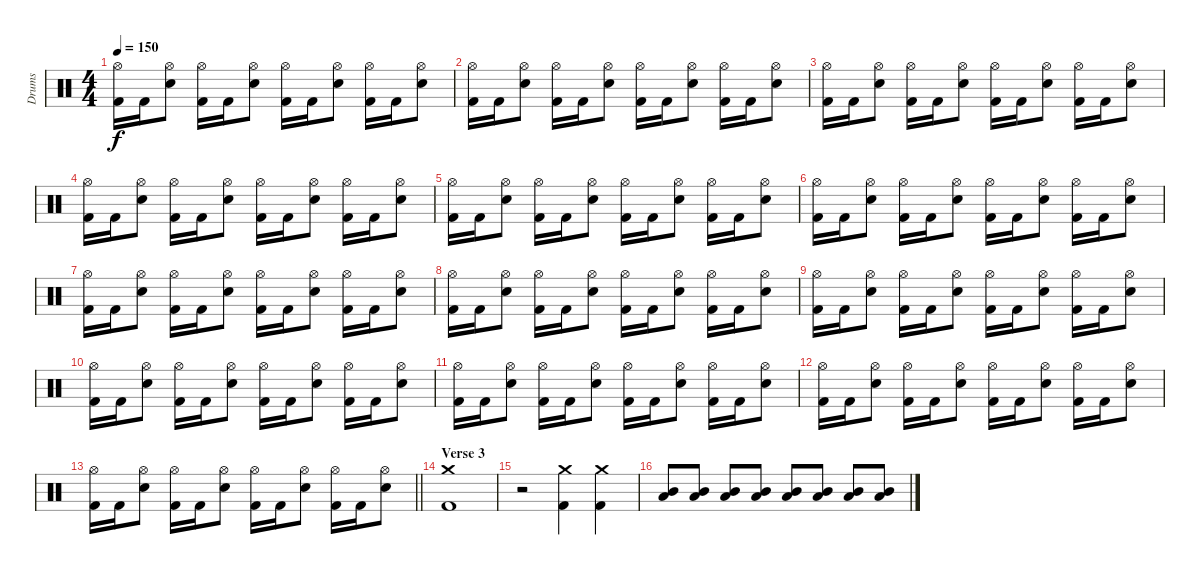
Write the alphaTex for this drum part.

\track ("Drums" "Drums") {instrument percussion}
\staff {score}
\articulation defaults
\ts (4 4)
\tempo 150
\clef neutral
\ks c
("Hi-Hat (open)" "Kick (hit) 2").16{dy f} "Kick (hit) 2".16 ("Hi-Hat (open)" "Electric Snare (hit)").8 ("Hi-Hat (open)" "Kick (hit) 2").16 "Kick (hit) 2".16 ("Electric Snare (hit)" "Hi-Hat (open)").8 ("Kick (hit) 2" "Hi-Hat (open)").16 "Kick (hit) 2".16 ("Hi-Hat (open)" "Electric Snare (hit)").8 ("Hi-Hat (open)" "Kick (hit) 2").16 "Kick (hit) 2".16 ("Hi-Hat (open)" "Electric Snare (hit)").8 |
("Hi-Hat (open)" "Kick (hit) 2").16 "Kick (hit) 2".16 ("Hi-Hat (open)" "Electric Snare (hit)").8 ("Hi-Hat (open)" "Kick (hit) 2").16 "Kick (hit) 2".16 ("Electric Snare (hit)" "Hi-Hat (open)").8 ("Kick (hit) 2" "Hi-Hat (open)").16 "Kick (hit) 2".16 ("Hi-Hat (open)" "Electric Snare (hit)").8 ("Hi-Hat (open)" "Kick (hit) 2").16 "Kick (hit) 2".16 ("Hi-Hat (open)" "Electric Snare (hit)").8 |
("Hi-Hat (open)" "Kick (hit) 2").16 "Kick (hit) 2".16 ("Hi-Hat (open)" "Electric Snare (hit)").8 ("Hi-Hat (open)" "Kick (hit) 2").16 "Kick (hit) 2".16 ("Electric Snare (hit)" "Hi-Hat (open)").8 ("Kick (hit) 2" "Hi-Hat (open)").16 "Kick (hit) 2".16 ("Hi-Hat (open)" "Electric Snare (hit)").8 ("Hi-Hat (open)" "Kick (hit) 2").16 "Kick (hit) 2".16 ("Hi-Hat (open)" "Electric Snare (hit)").8 |
("Hi-Hat (open)" "Kick (hit) 2").16 "Kick (hit) 2".16 ("Hi-Hat (open)" "Electric Snare (hit)").8 ("Hi-Hat (open)" "Kick (hit) 2").16 "Kick (hit) 2".16 ("Electric Snare (hit)" "Hi-Hat (open)").8 ("Kick (hit) 2" "Hi-Hat (open)").16 "Kick (hit) 2".16 ("Hi-Hat (open)" "Electric Snare (hit)").8 ("Hi-Hat (open)" "Kick (hit) 2").16 "Kick (hit) 2".16 ("Hi-Hat (open)" "Electric Snare (hit)").8 |
("Hi-Hat (open)" "Kick (hit) 2").16 "Kick (hit) 2".16 ("Hi-Hat (open)" "Electric Snare (hit)").8 ("Hi-Hat (open)" "Kick (hit) 2").16 "Kick (hit) 2".16 ("Electric Snare (hit)" "Hi-Hat (open)").8 ("Kick (hit) 2" "Hi-Hat (open)").16 "Kick (hit) 2".16 ("Hi-Hat (open)" "Electric Snare (hit)").8 ("Hi-Hat (open)" "Kick (hit) 2").16 "Kick (hit) 2".16 ("Hi-Hat (open)" "Electric Snare (hit)").8 |
("Hi-Hat (open)" "Kick (hit) 2").16 "Kick (hit) 2".16 ("Hi-Hat (open)" "Electric Snare (hit)").8 ("Hi-Hat (open)" "Kick (hit) 2").16 "Kick (hit) 2".16 ("Electric Snare (hit)" "Hi-Hat (open)").8 ("Kick (hit) 2" "Hi-Hat (open)").16 "Kick (hit) 2".16 ("Hi-Hat (open)" "Electric Snare (hit)").8 ("Hi-Hat (open)" "Kick (hit) 2").16 "Kick (hit) 2".16 ("Hi-Hat (open)" "Electric Snare (hit)").8 |
("Hi-Hat (open)" "Kick (hit) 2").16 "Kick (hit) 2".16 ("Hi-Hat (open)" "Electric Snare (hit)").8 ("Hi-Hat (open)" "Kick (hit) 2").16 "Kick (hit) 2".16 ("Electric Snare (hit)" "Hi-Hat (open)").8 ("Kick (hit) 2" "Hi-Hat (open)").16 "Kick (hit) 2".16 ("Hi-Hat (open)" "Electric Snare (hit)").8 ("Hi-Hat (open)" "Kick (hit) 2").16 "Kick (hit) 2".16 ("Hi-Hat (open)" "Electric Snare (hit)").8 |
("Hi-Hat (open)" "Kick (hit) 2").16 "Kick (hit) 2".16 ("Hi-Hat (open)" "Electric Snare (hit)").8 ("Hi-Hat (open)" "Kick (hit) 2").16 "Kick (hit) 2".16 ("Electric Snare (hit)" "Hi-Hat (open)").8 ("Kick (hit) 2" "Hi-Hat (open)").16 "Kick (hit) 2".16 ("Hi-Hat (open)" "Electric Snare (hit)").8 ("Hi-Hat (open)" "Kick (hit) 2").16 "Kick (hit) 2".16 ("Hi-Hat (open)" "Electric Snare (hit)").8 |
("Hi-Hat (open)" "Kick (hit) 2").16 "Kick (hit) 2".16 ("Hi-Hat (open)" "Electric Snare (hit)").8 ("Hi-Hat (open)" "Kick (hit) 2").16 "Kick (hit) 2".16 ("Electric Snare (hit)" "Hi-Hat (open)").8 ("Kick (hit) 2" "Hi-Hat (open)").16 "Kick (hit) 2".16 ("Hi-Hat (open)" "Electric Snare (hit)").8 ("Hi-Hat (open)" "Kick (hit) 2").16 "Kick (hit) 2".16 ("Hi-Hat (open)" "Electric Snare (hit)").8 |
("Hi-Hat (open)" "Kick (hit) 2").16 "Kick (hit) 2".16 ("Hi-Hat (open)" "Electric Snare (hit)").8 ("Hi-Hat (open)" "Kick (hit) 2").16 "Kick (hit) 2".16 ("Electric Snare (hit)" "Hi-Hat (open)").8 ("Kick (hit) 2" "Hi-Hat (open)").16 "Kick (hit) 2".16 ("Hi-Hat (open)" "Electric Snare (hit)").8 ("Hi-Hat (open)" "Kick (hit) 2").16 "Kick (hit) 2".16 ("Hi-Hat (open)" "Electric Snare (hit)").8 |
("Hi-Hat (open)" "Kick (hit) 2").16 "Kick (hit) 2".16 ("Hi-Hat (open)" "Electric Snare (hit)").8 ("Hi-Hat (open)" "Kick (hit) 2").16 "Kick (hit) 2".16 ("Electric Snare (hit)" "Hi-Hat (open)").8 ("Kick (hit) 2" "Hi-Hat (open)").16 "Kick (hit) 2".16 ("Hi-Hat (open)" "Electric Snare (hit)").8 ("Hi-Hat (open)" "Kick (hit) 2").16 "Kick (hit) 2".16 ("Hi-Hat (open)" "Electric Snare (hit)").8 |
("Hi-Hat (open)" "Kick (hit) 2").16 "Kick (hit) 2".16 ("Hi-Hat (open)" "Electric Snare (hit)").8 ("Hi-Hat (open)" "Kick (hit) 2").16 "Kick (hit) 2".16 ("Electric Snare (hit)" "Hi-Hat (open)").8 ("Kick (hit) 2" "Hi-Hat (open)").16 "Kick (hit) 2".16 ("Hi-Hat (open)" "Electric Snare (hit)").8 ("Hi-Hat (open)" "Kick (hit) 2").16 "Kick (hit) 2".16 ("Hi-Hat (open)" "Electric Snare (hit)").8 |
\barLineRight lightlight
("Hi-Hat (open)" "Kick (hit) 2").16 "Kick (hit) 2".16 ("Hi-Hat (open)" "Electric Snare (hit)").8 ("Hi-Hat (open)" "Kick (hit) 2").16 "Kick (hit) 2".16 ("Electric Snare (hit)" "Hi-Hat (open)").8 ("Kick (hit) 2" "Hi-Hat (open)").16 "Kick (hit) 2".16 ("Hi-Hat (open)" "Electric Snare (hit)").8 ("Hi-Hat (open)" "Kick (hit) 2").16 "Kick (hit) 2".16 ("Hi-Hat (open)" "Electric Snare (hit)").8 |
\section ("" "Verse 3")
("Crash medium (hit)" "Kick (hit) 2").1 |
r.2 ("Crash medium (hit)" "Kick (hit) 2").4 ("Crash medium (hit)" "Kick (hit) 2").4 |
("Low Tom (hit)" "Mid Tom (hit)").8 ("Low Tom (hit)" "Mid Tom (hit)").8 ("Low Tom (hit)" "Mid Tom (hit)").8 ("Low Tom (hit)" "Mid Tom (hit)").8 ("Low Tom (hit)" "Mid Tom (hit)").8 ("Low Tom (hit)" "Mid Tom (hit)").8 ("Low Tom (hit)" "Mid Tom (hit)").8 ("Low Tom (hit)" "Mid Tom (hit)").8
